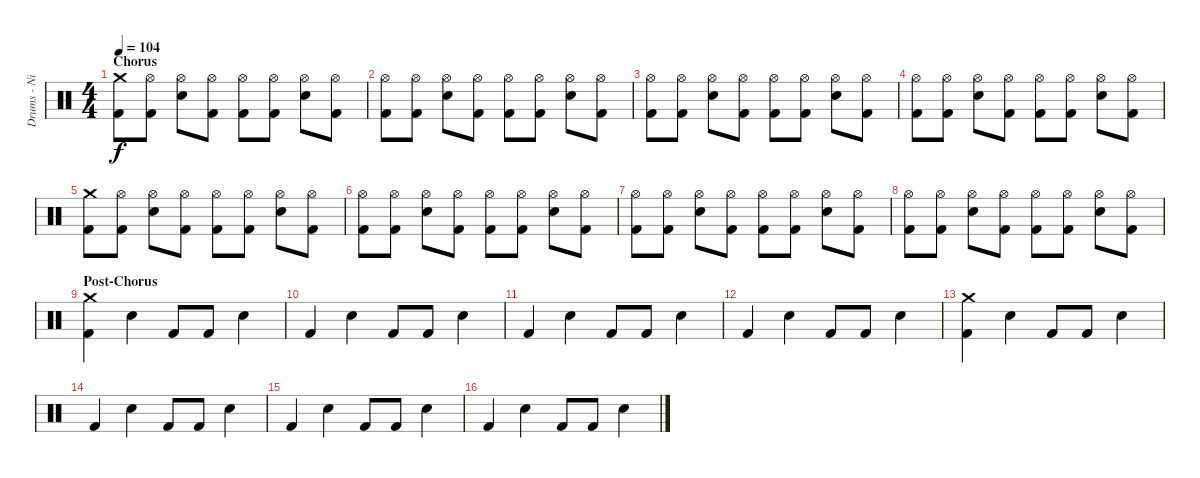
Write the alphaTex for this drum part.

\track ("Drums - Nick Jago" "Drums - Ni") {instrument percussion}
\staff {score}
\articulation defaults
\ts (4 4)
\section ("" "Chorus")
\tempo 104
\clef neutral
\ks c
("Crash medium (hit)" "Kick (hit) 2").8{dy f} ("Hi-Hat (open)" "Kick (hit) 2").8 ("Hi-Hat (open)" "Electric Snare (hit)").8 ("Hi-Hat (open)" "Kick (hit) 2").8 ("Hi-Hat (open)" "Kick (hit) 2").8 ("Hi-Hat (open)" "Kick (hit) 2").8 ("Hi-Hat (open)" "Electric Snare (hit)").8 ("Hi-Hat (open)" "Kick (hit) 2").8 |
("Hi-Hat (open)" "Kick (hit) 2").8 ("Hi-Hat (open)" "Kick (hit) 2").8 ("Hi-Hat (open)" "Electric Snare (hit)").8 ("Hi-Hat (open)" "Kick (hit) 2").8 ("Hi-Hat (open)" "Kick (hit) 2").8 ("Hi-Hat (open)" "Kick (hit) 2").8 ("Hi-Hat (open)" "Electric Snare (hit)").8 ("Hi-Hat (open)" "Kick (hit) 2").8 |
("Hi-Hat (open)" "Kick (hit) 2").8 ("Hi-Hat (open)" "Kick (hit) 2").8 ("Hi-Hat (open)" "Electric Snare (hit)").8 ("Hi-Hat (open)" "Kick (hit) 2").8 ("Hi-Hat (open)" "Kick (hit) 2").8 ("Hi-Hat (open)" "Kick (hit) 2").8 ("Hi-Hat (open)" "Electric Snare (hit)").8 ("Hi-Hat (open)" "Kick (hit) 2").8 |
("Hi-Hat (open)" "Kick (hit) 2").8 ("Hi-Hat (open)" "Kick (hit) 2").8 ("Hi-Hat (open)" "Electric Snare (hit)").8 ("Hi-Hat (open)" "Kick (hit) 2").8 ("Hi-Hat (open)" "Kick (hit) 2").8 ("Hi-Hat (open)" "Kick (hit) 2").8 ("Hi-Hat (open)" "Electric Snare (hit)").8 ("Hi-Hat (open)" "Kick (hit) 2").8 |
("Crash medium (hit)" "Kick (hit) 2").8 ("Hi-Hat (open)" "Kick (hit) 2").8 ("Hi-Hat (open)" "Electric Snare (hit)").8 ("Hi-Hat (open)" "Kick (hit) 2").8 ("Hi-Hat (open)" "Kick (hit) 2").8 ("Hi-Hat (open)" "Kick (hit) 2").8 ("Hi-Hat (open)" "Electric Snare (hit)").8 ("Hi-Hat (open)" "Kick (hit) 2").8 |
("Hi-Hat (open)" "Kick (hit) 2").8 ("Hi-Hat (open)" "Kick (hit) 2").8 ("Hi-Hat (open)" "Electric Snare (hit)").8 ("Hi-Hat (open)" "Kick (hit) 2").8 ("Hi-Hat (open)" "Kick (hit) 2").8 ("Hi-Hat (open)" "Kick (hit) 2").8 ("Hi-Hat (open)" "Electric Snare (hit)").8 ("Hi-Hat (open)" "Kick (hit) 2").8 |
("Hi-Hat (open)" "Kick (hit) 2").8 ("Hi-Hat (open)" "Kick (hit) 2").8 ("Hi-Hat (open)" "Electric Snare (hit)").8 ("Hi-Hat (open)" "Kick (hit) 2").8 ("Hi-Hat (open)" "Kick (hit) 2").8 ("Hi-Hat (open)" "Kick (hit) 2").8 ("Hi-Hat (open)" "Electric Snare (hit)").8 ("Hi-Hat (open)" "Kick (hit) 2").8 |
("Hi-Hat (open)" "Kick (hit) 2").8 ("Hi-Hat (open)" "Kick (hit) 2").8 ("Hi-Hat (open)" "Electric Snare (hit)").8 ("Hi-Hat (open)" "Kick (hit) 2").8 ("Hi-Hat (open)" "Kick (hit) 2").8 ("Hi-Hat (open)" "Kick (hit) 2").8 ("Hi-Hat (open)" "Electric Snare (hit)").8 ("Hi-Hat (open)" "Kick (hit) 2").8 |
\section ("" "Post-Chorus")
("Crash medium (hit)" "Kick (hit) 2").4 "Electric Snare (hit)".4 "Kick (hit) 2".8 "Kick (hit) 2".8 "Electric Snare (hit)".4 |
"Kick (hit) 2".4 "Electric Snare (hit)".4 "Kick (hit) 2".8 "Kick (hit) 2".8 "Electric Snare (hit)".4 |
"Kick (hit) 2".4 "Electric Snare (hit)".4 "Kick (hit) 2".8 "Kick (hit) 2".8 "Electric Snare (hit)".4 |
"Kick (hit) 2".4 "Electric Snare (hit)".4 "Kick (hit) 2".8 "Kick (hit) 2".8 "Electric Snare (hit)".4 |
("Crash medium (hit)" "Kick (hit) 2").4 "Electric Snare (hit)".4 "Kick (hit) 2".8 "Kick (hit) 2".8 "Electric Snare (hit)".4 |
"Kick (hit) 2".4 "Electric Snare (hit)".4 "Kick (hit) 2".8 "Kick (hit) 2".8 "Electric Snare (hit)".4 |
"Kick (hit) 2".4 "Electric Snare (hit)".4 "Kick (hit) 2".8 "Kick (hit) 2".8 "Electric Snare (hit)".4 |
"Kick (hit) 2".4 "Electric Snare (hit)".4 "Kick (hit) 2".8 "Kick (hit) 2".8 "Electric Snare (hit)".4
